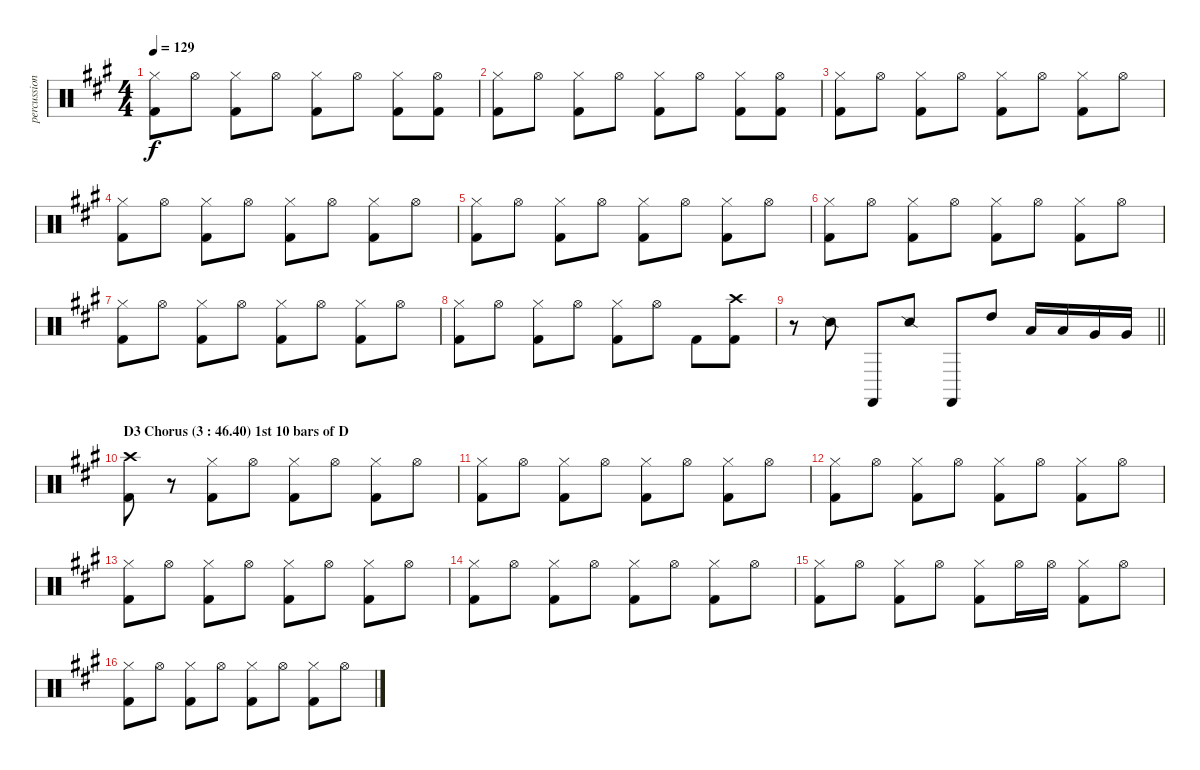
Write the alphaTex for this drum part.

\track ("percussion" "percussion") {instrument percussion}
\staff {score}
\articulation defaults
\ts (4 4)
\tempo 129
\clef neutral
\ks a
("Hi-Hat (closed)" "Kick (hit) 2").8{dy f} "Hi-Hat (open)".8 ("Hi-Hat (closed)" "Kick (hit) 2").8 "Hi-Hat (open)".8 ("Hi-Hat (closed)" "Kick (hit) 2").8 "Hi-Hat (open)".8 ("Hi-Hat (closed)" "Kick (hit) 2").8 ("Hi-Hat (open)" "Kick (hit) 2").8 |
("Hi-Hat (closed)" "Kick (hit) 2").8 "Hi-Hat (open)".8 ("Hi-Hat (closed)" "Kick (hit) 2").8 "Hi-Hat (open)".8 ("Hi-Hat (closed)" "Kick (hit) 2").8 "Hi-Hat (open)".8 ("Hi-Hat (closed)" "Kick (hit) 2").8 ("Hi-Hat (open)" "Kick (hit) 2").8 |
("Hi-Hat (closed)" "Kick (hit) 2").8 "Hi-Hat (open)".8 ("Hi-Hat (closed)" "Kick (hit) 2").8 "Hi-Hat (open)".8 ("Hi-Hat (closed)" "Kick (hit) 2").8 "Hi-Hat (open)".8 ("Hi-Hat (closed)" "Kick (hit) 2").8 "Hi-Hat (open)".8 |
("Hi-Hat (closed)" "Kick (hit) 2").8 "Hi-Hat (open)".8 ("Hi-Hat (closed)" "Kick (hit) 2").8 "Hi-Hat (open)".8 ("Hi-Hat (closed)" "Kick (hit) 2").8 "Hi-Hat (open)".8 ("Hi-Hat (closed)" "Kick (hit) 2").8 "Hi-Hat (open)".8 |
("Hi-Hat (closed)" "Kick (hit) 2").8 "Hi-Hat (open)".8 ("Hi-Hat (closed)" "Kick (hit) 2").8 "Hi-Hat (open)".8 ("Hi-Hat (closed)" "Kick (hit) 2").8 "Hi-Hat (open)".8 ("Hi-Hat (closed)" "Kick (hit) 2").8 "Hi-Hat (open)".8 |
("Hi-Hat (closed)" "Kick (hit) 2").8 "Hi-Hat (open)".8 ("Hi-Hat (closed)" "Kick (hit) 2").8 "Hi-Hat (open)".8 ("Hi-Hat (closed)" "Kick (hit) 2").8 "Hi-Hat (open)".8 ("Hi-Hat (closed)" "Kick (hit) 2").8 "Hi-Hat (open)".8 |
("Hi-Hat (closed)" "Kick (hit) 2").8 "Hi-Hat (open)".8 ("Hi-Hat (closed)" "Kick (hit) 2").8 "Hi-Hat (open)".8 ("Hi-Hat (closed)" "Kick (hit) 2").8 "Hi-Hat (open)".8 ("Hi-Hat (closed)" "Kick (hit) 2").8 "Hi-Hat (open)".8 |
("Hi-Hat (closed)" "Kick (hit) 2").8 "Hi-Hat (open)".8 ("Hi-Hat (closed)" "Kick (hit) 2").8 "Hi-Hat (open)".8 ("Hi-Hat (closed)" "Kick (hit) 2").8 "Hi-Hat (open)".8 "Kick (hit) 2".8 ("Crash high (hit)" "Kick (hit) 2").8 |
\barLineRight lightlight
r.8 "Snare (side stick) 2".8 "Castanets (hit)".8 "Snare (side stick) 2".8 "Castanets (hit)".8 "High Tom (hit)".8 "Low Tom (hit)".16 "Low Tom (hit)".16 "Very Low Tom (hit)".16 "Very Low Tom (hit)".16 |
\section ("" "D3 Chorus (3 : 46.40) 1st 10 bars of D")
("Crash high (hit)" "Kick (hit) 2").8 r.8 ("Hi-Hat (closed)" "Kick (hit) 2").8 "Hi-Hat (open)".8 ("Hi-Hat (closed)" "Kick (hit) 2").8 "Hi-Hat (open)".8 ("Hi-Hat (closed)" "Kick (hit) 2").8 "Hi-Hat (open)".8 |
("Hi-Hat (closed)" "Kick (hit) 2").8 "Hi-Hat (open)".8 ("Hi-Hat (closed)" "Kick (hit) 2").8 "Hi-Hat (open)".8 ("Hi-Hat (closed)" "Kick (hit) 2").8 "Hi-Hat (open)".8 ("Hi-Hat (closed)" "Kick (hit) 2").8 "Hi-Hat (open)".8 |
("Hi-Hat (closed)" "Kick (hit) 2").8 "Hi-Hat (open)".8 ("Hi-Hat (closed)" "Kick (hit) 2").8 "Hi-Hat (open)".8 ("Hi-Hat (closed)" "Kick (hit) 2").8 "Hi-Hat (open)".8 ("Hi-Hat (closed)" "Kick (hit) 2").8 "Hi-Hat (open)".8 |
("Hi-Hat (closed)" "Kick (hit) 2").8 "Hi-Hat (open)".8 ("Hi-Hat (closed)" "Kick (hit) 2").8 "Hi-Hat (open)".8 ("Hi-Hat (closed)" "Kick (hit) 2").8 "Hi-Hat (open)".8 ("Hi-Hat (closed)" "Kick (hit) 2").8 "Hi-Hat (open)".8 |
("Hi-Hat (closed)" "Kick (hit) 2").8 "Hi-Hat (open)".8 ("Hi-Hat (closed)" "Kick (hit) 2").8 "Hi-Hat (open)".8 ("Hi-Hat (closed)" "Kick (hit) 2").8 "Hi-Hat (open)".8 ("Hi-Hat (closed)" "Kick (hit) 2").8 "Hi-Hat (open)".8 |
("Hi-Hat (closed)" "Kick (hit) 2").8 "Hi-Hat (open)".8 ("Hi-Hat (closed)" "Kick (hit) 2").8 "Hi-Hat (open)".8 ("Hi-Hat (closed)" "Kick (hit) 2").8 "Hi-Hat (open)".16 "Hi-Hat (open)".16 ("Hi-Hat (closed)" "Kick (hit) 2").8 "Hi-Hat (open)".8 |
("Hi-Hat (closed)" "Kick (hit) 2").8 "Hi-Hat (open)".8 ("Hi-Hat (closed)" "Kick (hit) 2").8 "Hi-Hat (open)".8 ("Hi-Hat (closed)" "Kick (hit) 2").8 "Hi-Hat (open)".8 ("Hi-Hat (closed)" "Kick (hit) 2").8 "Hi-Hat (open)".8
